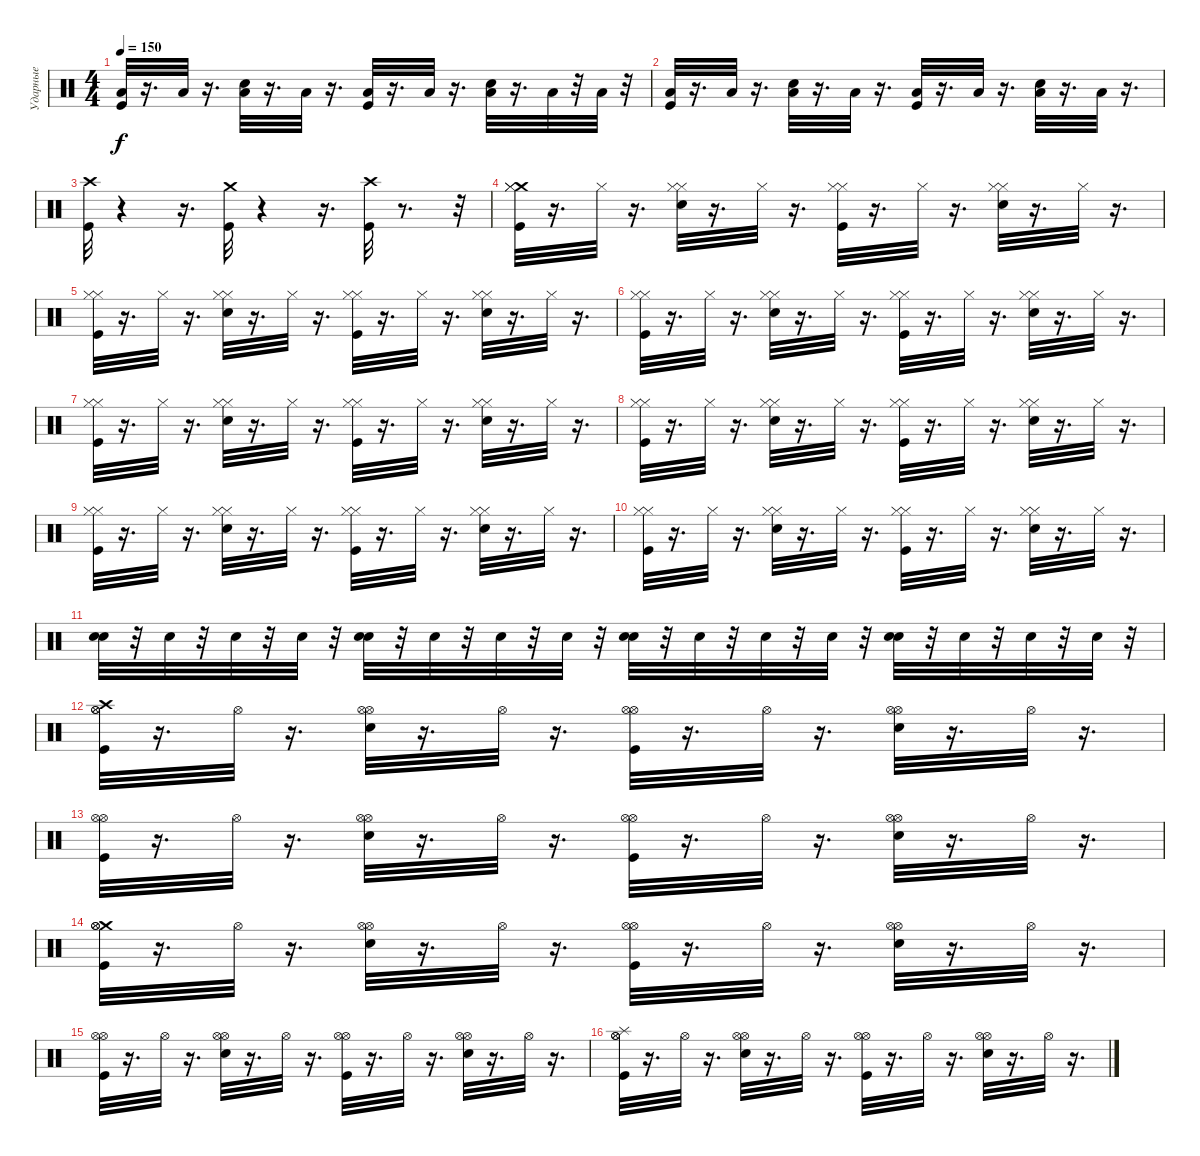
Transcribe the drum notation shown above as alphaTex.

\track ("Ударные" "Ударные") {instrument percussion}
\staff {score}
\articulation defaults
\ts (4 4)
\tempo 150
\clef neutral
\ks c
("Kick (hit)" "Low Floor Tom (hit)").32{dy f} r.16{d} "Low Floor Tom (hit)".32 r.16{d} ("Low Floor Tom (hit)" "Snare (hit) 2").32 r.16{d} "Low Floor Tom (hit)".32 r.16{d} ("Kick (hit)" "Low Floor Tom (hit)").32 r.16{d} "Low Floor Tom (hit)".32 r.16{d} ("Low Floor Tom (hit)" "Snare (hit) 2").32 r.16{d} "Low Floor Tom (hit)".32 r.32 "Low Floor Tom (hit)".32 r.32 |
("Kick (hit)" "Low Floor Tom (hit)").32 r.16{d} "Low Floor Tom (hit)".32 r.16{d} ("Low Floor Tom (hit)" "Snare (hit) 2").32 r.16{d} "Low Floor Tom (hit)".32 r.16{d} ("Low Floor Tom (hit)" "Kick (hit)").32 r.16{d} "Low Floor Tom (hit)".32 r.16{d} ("Snare (hit) 2" "Low Floor Tom (hit)").32 r.16{d} "Low Floor Tom (hit)".32 r.16{d} |
("Crash high (hit)" "Kick (hit)").32 r.4 r.16{d} ("Kick (hit)" "Crash medium (hit)").32 r.4 r.16{d} ("Crash high (hit)" "Kick (hit)").32 r.8{d} r.32 |
("Crash medium (hit)" "Hi-Hat (closed)" "Hi-Hat (closed)" "Kick (hit)").32 r.16{d} "Hi-Hat (closed)".32 r.16{d} ("Hi-Hat (closed)" "Hi-Hat (closed)" "Snare (hit) 2").32 r.16{d} "Hi-Hat (closed)".32 r.16{d} ("Hi-Hat (closed)" "Hi-Hat (closed)" "Kick (hit)").32 r.16{d} "Hi-Hat (closed)".32 r.16{d} ("Hi-Hat (closed)" "Hi-Hat (closed)" "Snare (hit) 2").32 r.16{d} "Hi-Hat (closed)".32 r.16{d} |
("Hi-Hat (closed)" "Hi-Hat (closed)" "Kick (hit)").32 r.16{d} "Hi-Hat (closed)".32 r.16{d} ("Hi-Hat (closed)" "Hi-Hat (closed)" "Snare (hit) 2").32 r.16{d} "Hi-Hat (closed)".32 r.16{d} ("Hi-Hat (closed)" "Hi-Hat (closed)" "Kick (hit)").32 r.16{d} "Hi-Hat (closed)".32 r.16{d} ("Hi-Hat (closed)" "Hi-Hat (closed)" "Snare (hit) 2").32 r.16{d} "Hi-Hat (closed)".32 r.16{d} |
("Hi-Hat (closed)" "Hi-Hat (closed)" "Kick (hit)").32 r.16{d} "Hi-Hat (closed)".32 r.16{d} ("Hi-Hat (closed)" "Hi-Hat (closed)" "Snare (hit) 2").32 r.16{d} "Hi-Hat (closed)".32 r.16{d} ("Hi-Hat (closed)" "Hi-Hat (closed)" "Kick (hit)").32 r.16{d} "Hi-Hat (closed)".32 r.16{d} ("Hi-Hat (closed)" "Hi-Hat (closed)" "Snare (hit) 2").32 r.16{d} "Hi-Hat (closed)".32 r.16{d} |
("Hi-Hat (closed)" "Hi-Hat (closed)" "Kick (hit)").32 r.16{d} "Hi-Hat (closed)".32 r.16{d} ("Hi-Hat (closed)" "Hi-Hat (closed)" "Snare (hit) 2").32 r.16{d} "Hi-Hat (closed)".32 r.16{d} ("Hi-Hat (closed)" "Hi-Hat (closed)" "Kick (hit)").32 r.16{d} "Hi-Hat (closed)".32 r.16{d} ("Hi-Hat (closed)" "Hi-Hat (closed)" "Snare (hit) 2").32 r.16{d} "Hi-Hat (closed)".32 r.16{d} |
("Hi-Hat (closed)" "Hi-Hat (closed)" "Kick (hit)").32 r.16{d} "Hi-Hat (closed)".32 r.16{d} ("Hi-Hat (closed)" "Hi-Hat (closed)" "Snare (hit) 2").32 r.16{d} "Hi-Hat (closed)".32 r.16{d} ("Hi-Hat (closed)" "Hi-Hat (closed)" "Kick (hit)").32 r.16{d} "Hi-Hat (closed)".32 r.16{d} ("Hi-Hat (closed)" "Hi-Hat (closed)" "Snare (hit) 2").32 r.16{d} "Hi-Hat (closed)".32 r.16{d} |
("Hi-Hat (closed)" "Hi-Hat (closed)" "Kick (hit)").32 r.16{d} "Hi-Hat (closed)".32 r.16{d} ("Hi-Hat (closed)" "Hi-Hat (closed)" "Snare (hit) 2").32 r.16{d} "Hi-Hat (closed)".32 r.16{d} ("Hi-Hat (closed)" "Hi-Hat (closed)" "Kick (hit)").32 r.16{d} "Hi-Hat (closed)".32 r.16{d} ("Hi-Hat (closed)" "Hi-Hat (closed)" "Snare (hit) 2").32 r.16{d} "Hi-Hat (closed)".32 r.16{d} |
("Hi-Hat (closed)" "Hi-Hat (closed)" "Kick (hit)").32 r.16{d} "Hi-Hat (closed)".32 r.16{d} ("Hi-Hat (closed)" "Hi-Hat (closed)" "Snare (hit) 2").32 r.16{d} "Hi-Hat (closed)".32 r.16{d} ("Hi-Hat (closed)" "Hi-Hat (closed)" "Kick (hit)").32 r.16{d} "Hi-Hat (closed)".32 r.16{d} ("Hi-Hat (closed)" "Hi-Hat (closed)" "Snare (hit) 2").32 r.16{d} "Hi-Hat (closed)".32 r.16{d} |
("Snare (hit) 2" "Snare (hit) 2").32 r.32 "Snare (hit) 2".32 r.32 "Snare (hit) 2".32 r.32 "Snare (hit) 2".32 r.32 ("Snare (hit) 2" "Snare (hit) 2").32 r.32 "Snare (hit) 2".32 r.32 "Snare (hit) 2".32 r.32 "Snare (hit) 2".32 r.32 ("Snare (hit) 2" "Snare (hit) 2").32 r.32 "Snare (hit) 2".32 r.32 "Snare (hit) 2".32 r.32 "Snare (hit) 2".32 r.32 ("Snare (hit) 2" "Snare (hit) 2").32 r.32 "Snare (hit) 2".32 r.32 "Snare (hit) 2".32 r.32 "Snare (hit) 2".32 r.32 |
("Crash high (hit)" "Kick (hit)" "Hi-Hat (open)" "Hi-Hat (open)").32 r.16{d} "Hi-Hat (open)".32 r.16{d} ("Hi-Hat (open)" "Snare (hit) 2" "Hi-Hat (open)").32 r.16{d} "Hi-Hat (open)".32 r.16{d} ("Hi-Hat (open)" "Kick (hit)" "Hi-Hat (open)").32 r.16{d} "Hi-Hat (open)".32 r.16{d} ("Hi-Hat (open)" "Hi-Hat (open)" "Snare (hit) 2").32 r.16{d} "Hi-Hat (open)".32 r.16{d} |
("Hi-Hat (open)" "Hi-Hat (open)" "Kick (hit)").32 r.16{d} "Hi-Hat (open)".32 r.16{d} ("Snare (hit) 2" "Hi-Hat (open)" "Hi-Hat (open)").32 r.16{d} "Hi-Hat (open)".32 r.16{d} ("Kick (hit)" "Hi-Hat (open)" "Hi-Hat (open)").32 r.16{d} "Hi-Hat (open)".32 r.16{d} ("Hi-Hat (open)" "Hi-Hat (open)" "Snare (hit) 2").32 r.16{d} "Hi-Hat (open)".32 r.16{d} |
("Crash medium (hit)" "Hi-Hat (open)" "Kick (hit)" "Hi-Hat (open)").32 r.16{d} "Hi-Hat (open)".32 r.16{d} ("Hi-Hat (open)" "Snare (hit) 2" "Hi-Hat (open)").32 r.16{d} "Hi-Hat (open)".32 r.16{d} ("Kick (hit)" "Hi-Hat (open)" "Hi-Hat (open)").32 r.16{d} "Hi-Hat (open)".32 r.16{d} ("Hi-Hat (open)" "Hi-Hat (open)" "Snare (hit) 2").32 r.16{d} "Hi-Hat (open)".32 r.16{d} |
("Kick (hit)" "Hi-Hat (open)" "Hi-Hat (open)").32 r.16{d} "Hi-Hat (open)".32 r.16{d} ("Snare (hit) 2" "Hi-Hat (open)" "Hi-Hat (open)").32 r.16{d} "Hi-Hat (open)".32 r.16{d} ("Kick (hit)" "Hi-Hat (open)" "Hi-Hat (open)").32 r.16{d} "Hi-Hat (open)".32 r.16{d} ("Hi-Hat (open)" "Snare (hit) 2" "Hi-Hat (open)").32 r.16{d} "Hi-Hat (open)".32 r.16{d} |
("Splash (hit)" "Hi-Hat (open)" "Kick (hit)" "Hi-Hat (open)").32 r.16{d} "Hi-Hat (open)".32 r.16{d} ("Hi-Hat (open)" "Hi-Hat (open)" "Snare (hit) 2").32 r.16{d} "Hi-Hat (open)".32 r.16{d} ("Hi-Hat (open)" "Hi-Hat (open)" "Kick (hit)").32 r.16{d} "Hi-Hat (open)".32 r.16{d} ("Snare (hit) 2" "Hi-Hat (open)" "Hi-Hat (open)").32 r.16{d} "Hi-Hat (open)".32 r.16{d}
